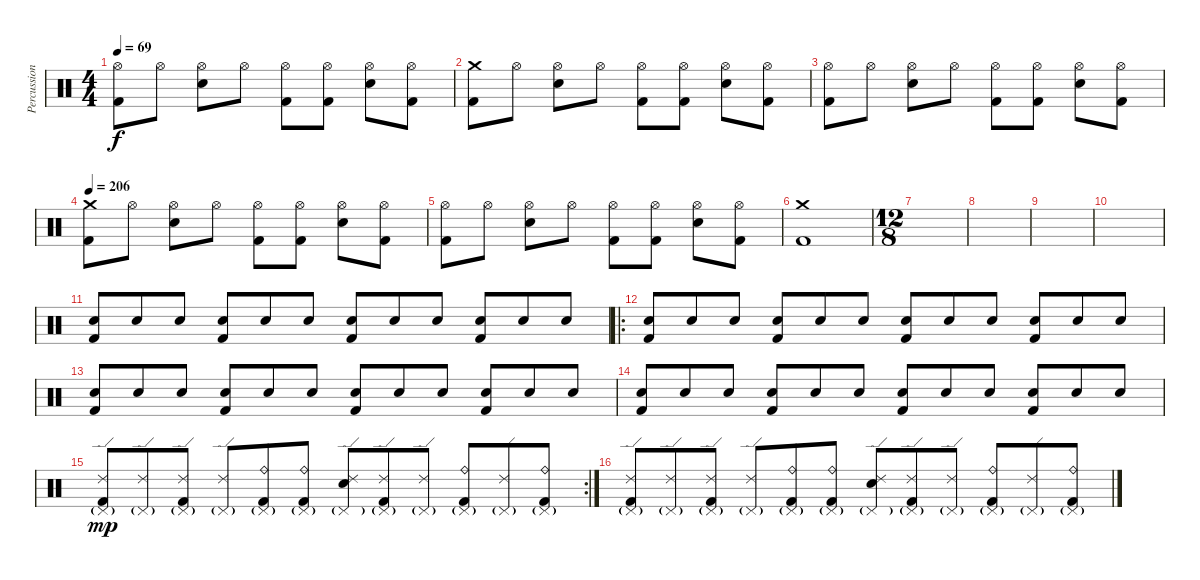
\track ("Percussion" "Percussion") {instrument percussion}
\staff {score}
\articulation defaults
\ts (4 4)
\tempo 69
\clef neutral
\ks c
("Hi-Hat (open)" "Kick (hit) 2").8{dy f} "Hi-Hat (open)".8 ("Hi-Hat (open)" "Electric Snare (hit)").8 "Hi-Hat (open)".8 ("Hi-Hat (open)" "Kick (hit) 2").8 ("Hi-Hat (open)" "Kick (hit) 2").8 ("Hi-Hat (open)" "Electric Snare (hit)").8 ("Hi-Hat (open)" "Kick (hit) 2").8 |
("Crash medium (hit)" "Kick (hit) 2").8 "Hi-Hat (open)".8 ("Hi-Hat (open)" "Electric Snare (hit)").8 "Hi-Hat (open)".8 ("Hi-Hat (open)" "Kick (hit) 2").8 ("Hi-Hat (open)" "Kick (hit) 2").8 ("Hi-Hat (open)" "Electric Snare (hit)").8 ("Hi-Hat (open)" "Kick (hit) 2").8 |
("Hi-Hat (open)" "Kick (hit) 2").8 "Hi-Hat (open)".8 ("Hi-Hat (open)" "Electric Snare (hit)").8 "Hi-Hat (open)".8 ("Hi-Hat (open)" "Kick (hit) 2").8 ("Hi-Hat (open)" "Kick (hit) 2").8 ("Hi-Hat (open)" "Electric Snare (hit)").8 ("Hi-Hat (open)" "Kick (hit) 2").8 |
\tempo 206
("Crash medium (hit)" "Kick (hit) 2").8 "Hi-Hat (open)".8 ("Hi-Hat (open)" "Electric Snare (hit)").8 "Hi-Hat (open)".8 ("Hi-Hat (open)" "Kick (hit) 2").8 ("Hi-Hat (open)" "Kick (hit) 2").8 ("Hi-Hat (open)" "Electric Snare (hit)").8 ("Hi-Hat (open)" "Kick (hit) 2").8 |
("Hi-Hat (open)" "Kick (hit) 2").8 "Hi-Hat (open)".8 ("Hi-Hat (open)" "Electric Snare (hit)").8 "Hi-Hat (open)".8 ("Hi-Hat (open)" "Kick (hit) 2").8 ("Hi-Hat (open)" "Kick (hit) 2").8 ("Hi-Hat (open)" "Electric Snare (hit)").8 ("Hi-Hat (open)" "Kick (hit) 2").8 |
("Crash medium (hit)" "Kick (hit) 2").1 |
\ts (12 8)
|
|
|
|
("Electric Snare (hit)" "Kick (hit) 2").8 "Electric Snare (hit)".8 "Electric Snare (hit)".8 ("Electric Snare (hit)" "Kick (hit) 2").8 "Electric Snare (hit)".8 "Electric Snare (hit)".8 ("Electric Snare (hit)" "Kick (hit) 2").8 "Electric Snare (hit)".8 "Electric Snare (hit)".8 ("Electric Snare (hit)" "Kick (hit) 2").8 "Electric Snare (hit)".8 "Electric Snare (hit)".8 |
\ro
("Electric Snare (hit)" "Kick (hit) 2").8 "Electric Snare (hit)".8 "Electric Snare (hit)".8 ("Electric Snare (hit)" "Kick (hit) 2").8 "Electric Snare (hit)".8 "Electric Snare (hit)".8 ("Electric Snare (hit)" "Kick (hit) 2").8 "Electric Snare (hit)".8 "Electric Snare (hit)".8 ("Electric Snare (hit)" "Kick (hit) 2").8 "Electric Snare (hit)".8 "Electric Snare (hit)".8 |
("Electric Snare (hit)" "Kick (hit) 2").8 "Electric Snare (hit)".8 "Electric Snare (hit)".8 ("Electric Snare (hit)" "Kick (hit) 2").8 "Electric Snare (hit)".8 "Electric Snare (hit)".8 ("Electric Snare (hit)" "Kick (hit) 2").8 "Electric Snare (hit)".8 "Electric Snare (hit)".8 ("Electric Snare (hit)" "Kick (hit) 2").8 "Electric Snare (hit)".8 "Electric Snare (hit)".8 |
("Electric Snare (hit)" "Kick (hit) 2").8 "Electric Snare (hit)".8 "Electric Snare (hit)".8 ("Electric Snare (hit)" "Kick (hit) 2").8 "Electric Snare (hit)".8 "Electric Snare (hit)".8 ("Electric Snare (hit)" "Kick (hit) 2").8 "Electric Snare (hit)".8 "Electric Snare (hit)".8 ("Electric Snare (hit)" "Kick (hit) 2").8 "Electric Snare (hit)".8 "Electric Snare (hit)".8 |
\rc 2
("Ride (edge) 2" "Pedal Hi-Hat (hit)"{g} "Kick (hit) 2").8{dy mp} ("Ride (edge) 2" "Pedal Hi-Hat (hit)"{g}).8 ("Ride (edge) 2" "Pedal Hi-Hat (hit)"{g} "Kick (hit) 2").8 ("Ride (edge) 2" "Pedal Hi-Hat (hit)"{g}).8 ("Ride (bell)" "Pedal Hi-Hat (hit)"{g} "Kick (hit) 2").8 ("Ride (bell)" "Pedal Hi-Hat (hit)"{g} "Kick (hit) 2").8 ("Ride (edge) 2" "Pedal Hi-Hat (hit)"{g} "Electric Snare (hit)").8 ("Ride (edge) 2" "Pedal Hi-Hat (hit)"{g} "Kick (hit) 2").8 ("Ride (edge) 2" "Pedal Hi-Hat (hit)"{g}).8 ("Ride (bell)" "Pedal Hi-Hat (hit)"{g} "Kick (hit) 2").8 ("Ride (edge) 2" "Pedal Hi-Hat (hit)"{g}).8 ("Ride (bell)" "Pedal Hi-Hat (hit)"{g} "Kick (hit) 2").8 |
("Ride (edge) 2" "Pedal Hi-Hat (hit)"{g} "Kick (hit) 2").8 ("Ride (edge) 2" "Pedal Hi-Hat (hit)"{g}).8 ("Ride (edge) 2" "Pedal Hi-Hat (hit)"{g} "Kick (hit) 2").8 ("Ride (edge) 2" "Pedal Hi-Hat (hit)"{g}).8 ("Ride (bell)" "Pedal Hi-Hat (hit)"{g} "Kick (hit) 2").8 ("Ride (bell)" "Pedal Hi-Hat (hit)"{g} "Kick (hit) 2").8 ("Ride (edge) 2" "Pedal Hi-Hat (hit)"{g} "Electric Snare (hit)").8 ("Ride (edge) 2" "Pedal Hi-Hat (hit)"{g} "Kick (hit) 2").8 ("Ride (edge) 2" "Pedal Hi-Hat (hit)"{g}).8 ("Ride (bell)" "Pedal Hi-Hat (hit)"{g} "Kick (hit) 2").8 ("Ride (edge) 2" "Pedal Hi-Hat (hit)"{g}).8 ("Ride (bell)" "Pedal Hi-Hat (hit)"{g} "Kick (hit) 2").8
